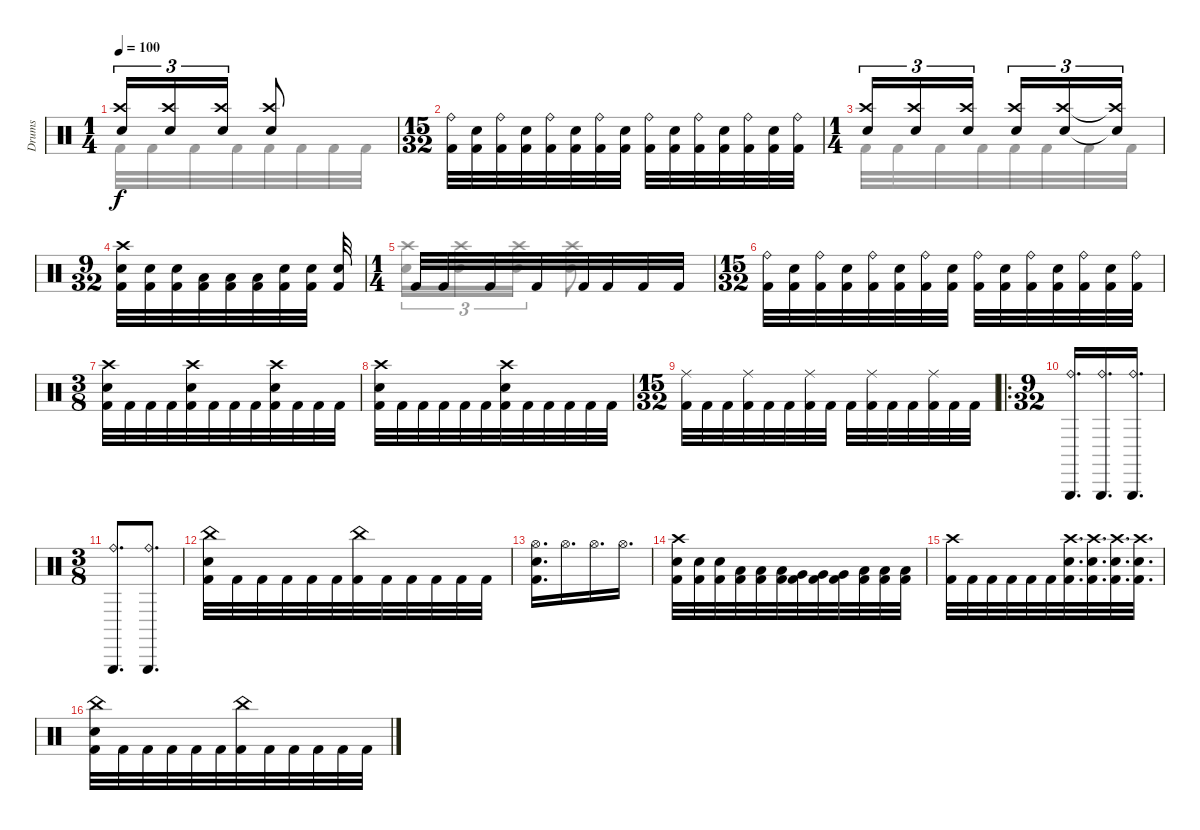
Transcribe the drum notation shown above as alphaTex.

\track ("Drums" "Drums") {instrument percussion}
\staff {score}
\articulation defaults
\voice
\ts (1 4)
\tempo 100
\clef neutral
\ks c
("Crash high (hit)" "Electric Snare (hit)").16{tu (3 2) dy f} ("Crash high (hit)" "Electric Snare (hit)").16{tu (3 2)} ("Crash high (hit)" "Electric Snare (hit)").16{tu (3 2)} ("Crash high (hit)" "Electric Snare (hit)").8 |
\ts (15 32)
("Ride (bell)" "Kick (hit) 2").32 ("Electric Snare (hit)" "Kick (hit) 2").32 ("Ride (bell)" "Kick (hit) 2").32 ("Electric Snare (hit)" "Kick (hit) 2").32 ("Ride (bell)" "Kick (hit) 2").32 ("Electric Snare (hit)" "Kick (hit) 2").32 ("Ride (bell)" "Kick (hit) 2").32 ("Electric Snare (hit)" "Kick (hit) 2").32 ("Ride (bell)" "Kick (hit) 2").32 ("Electric Snare (hit)" "Kick (hit) 2").32 ("Ride (bell)" "Kick (hit) 2").32 ("Electric Snare (hit)" "Kick (hit) 2").32 ("Ride (bell)" "Kick (hit) 2").32 ("Electric Snare (hit)" "Kick (hit) 2").32 ("Ride (bell)" "Kick (hit) 2").32 |
\ts (1 4)
("Crash high (hit)" "Electric Snare (hit)").16{tu (3 2)} ("Crash high (hit)" "Electric Snare (hit)").16{tu (3 2)} ("Crash high (hit)" "Electric Snare (hit)").16{tu (3 2) beam splitsecondary} ("Crash high (hit)" "Electric Snare (hit)").16{tu (3 2)} ("Crash high (hit)" "Electric Snare (hit)").16{tu (3 2)} ("Crash high (hit)"{t} "Electric Snare (hit)"{t}).16{tu (3 2)} |
\ts (9 32)
("Crash high (hit)" "Electric Snare (hit)" "Kick (hit) 2").32 ("Electric Snare (hit)" "Kick (hit) 2").32 ("Electric Snare (hit)" "Kick (hit) 2").32 ("Low Tom (hit)" "Kick (hit) 2").32 ("Low Tom (hit)" "Kick (hit) 2").32 ("Low Tom (hit)" "Kick (hit) 2").32 ("Electric Snare (hit)" "Kick (hit) 2").32 ("Electric Snare (hit)" "Kick (hit) 2").32 ("Electric Snare (hit)" "Kick (hit) 2").32 |
\ts (1 4)
"Kick (hit) 2".32 "Kick (hit) 2".32 "Kick (hit) 2".32 "Kick (hit) 2".32 "Kick (hit) 2".32 "Kick (hit) 2".32 "Kick (hit) 2".32 "Kick (hit) 2".32 |
\ts (15 32)
("Ride (bell)" "Kick (hit) 2").32 ("Electric Snare (hit)" "Kick (hit) 2").32 ("Ride (bell)" "Kick (hit) 2").32 ("Electric Snare (hit)" "Kick (hit) 2").32 ("Ride (bell)" "Kick (hit) 2").32 ("Electric Snare (hit)" "Kick (hit) 2").32 ("Ride (bell)" "Kick (hit) 2").32 ("Electric Snare (hit)" "Kick (hit) 2").32 ("Ride (bell)" "Kick (hit) 2").32 ("Electric Snare (hit)" "Kick (hit) 2").32 ("Ride (bell)" "Kick (hit) 2").32 ("Electric Snare (hit)" "Kick (hit) 2").32 ("Ride (bell)" "Kick (hit) 2").32 ("Electric Snare (hit)" "Kick (hit) 2").32 ("Ride (bell)" "Kick (hit) 2").32 |
\ts (3 8)
("Crash high (hit)" "Electric Snare (hit)" "Kick (hit) 2").32 "Kick (hit) 2".32 "Kick (hit) 2".32 "Kick (hit) 2".32 ("Crash high (hit)" "Electric Snare (hit)" "Kick (hit) 2").32 "Kick (hit) 2".32 "Kick (hit) 2".32 "Kick (hit) 2".32 ("Crash high (hit)" "Electric Snare (hit)" "Kick (hit) 2").32 "Kick (hit) 2".32 "Kick (hit) 2".32 "Kick (hit) 2".32 |
("Crash high (hit)" "Electric Snare (hit)" "Kick (hit) 2").32 "Kick (hit) 2".32 "Kick (hit) 2".32 "Kick (hit) 2".32 "Kick (hit) 2".32 "Kick (hit) 2".32 ("Crash high (hit)" "Electric Snare (hit)" "Kick (hit) 2").32 "Kick (hit) 2".32 "Kick (hit) 2".32 "Kick (hit) 2".32 "Kick (hit) 2".32 "Kick (hit) 2".32 |
\ts (15 32)
("Ride (middle)" "Kick (hit) 2").32 "Kick (hit) 2".32 "Kick (hit) 2".32 ("Ride (middle)" "Kick (hit) 2").32 "Kick (hit) 2".32 "Kick (hit) 2".32 ("Ride (middle)" "Kick (hit) 2").32 "Kick (hit) 2".32 "Kick (hit) 2".32 ("Ride (middle)" "Kick (hit) 2").32 "Kick (hit) 2".32 "Kick (hit) 2".32 ("Ride (middle)" "Kick (hit) 2").32 "Kick (hit) 2".32 "Kick (hit) 2".32 |
\ro
\ts (9 32)
("Ride (bell)" "Triangle (hit)").16{d} ("Ride (bell)" "Triangle (hit)").16{d} ("Ride (bell)" "Triangle (hit)").16{d} |
\ts (3 8)
("Ride (bell)" "Triangle (hit)").8{d} ("Ride (bell)" "Triangle (hit)").8{d} |
("China (hit)" "Electric Snare (hit)" "Kick (hit) 2").32 "Kick (hit) 2".32 "Kick (hit) 2".32 "Kick (hit) 2".32 "Kick (hit) 2".32 "Kick (hit) 2".32 ("China (hit)" "Kick (hit) 2").32 "Kick (hit) 2".32 "Kick (hit) 2".32 "Kick (hit) 2".32 "Kick (hit) 2".32 "Kick (hit) 2".32 |
("Hi-Hat (open)" "Electric Snare (hit)" "Kick (hit) 2").16{d} "Hi-Hat (open)".16{d} "Hi-Hat (open)".16{d} "Hi-Hat (open)".16{d} |
("Crash high (hit)" "Electric Snare (hit)" "Kick (hit) 2").32 ("Electric Snare (hit)" "Kick (hit) 2").32 ("Electric Snare (hit)" "Kick (hit) 2").32 ("Low Tom (hit)" "Kick (hit) 2").32 ("Low Tom (hit)" "Kick (hit) 2").32 ("Low Tom (hit)" "Kick (hit) 2").32 ("Very Low Tom (hit)" "Kick (hit) 2").32 ("Very Low Tom (hit)" "Kick (hit) 2").32 ("Very Low Tom (hit)" "Kick (hit) 2").32 ("Low Floor Tom (hit)" "Kick (hit) 2").32 ("Low Floor Tom (hit)" "Kick (hit) 2").32 ("Low Floor Tom (hit)" "Kick (hit) 2").32 |
("Crash high (hit)" "Kick (hit) 2").32 "Kick (hit) 2".32 "Kick (hit) 2".32 "Kick (hit) 2".32 "Kick (hit) 2".32 "Kick (hit) 2".32 ("Crash high (hit)" "Electric Snare (hit)" "Kick (hit) 2").32{d} ("Crash high (hit)" "Electric Snare (hit)" "Kick (hit) 2").32{d} ("Crash high (hit)" "Electric Snare (hit)" "Kick (hit) 2").32{d} ("Crash high (hit)" "Electric Snare (hit)" "Kick (hit) 2").32{d} |
("China (hit)" "Electric Snare (hit)" "Kick (hit) 2").32 "Kick (hit) 2".32 "Kick (hit) 2".32 "Kick (hit) 2".32 "Kick (hit) 2".32 "Kick (hit) 2".32 ("China (hit)" "Kick (hit) 2").32 "Kick (hit) 2".32 "Kick (hit) 2".32 "Kick (hit) 2".32 "Kick (hit) 2".32 "Kick (hit) 2".32
\voice
\clef neutral
\ottava regular
\simile none
\ks c "Kick (hit) 2".32{dy f} "Kick (hit) 2".32 "Kick (hit) 2".32 "Kick (hit) 2".32 "Kick (hit) 2".32 "Kick (hit) 2".32 "Kick (hit) 2".32 "Kick (hit) 2".32
|
|
"Kick (hit) 2".32 "Kick (hit) 2".32 "Kick (hit) 2".32 "Kick (hit) 2".32 "Kick (hit) 2".32 "Kick (hit) 2".32 "Kick (hit) 2".32 "Kick (hit) 2".32 |
|
("Crash high (hit)" "Electric Snare (hit)").16{tu (3 2)} ("Crash high (hit)" "Electric Snare (hit)").16{tu (3 2)} ("Crash high (hit)" "Electric Snare (hit)").16{tu (3 2)} ("Crash high (hit)" "Electric Snare (hit)").8 |
|
|
|
|
|
|
|
|
|
|
